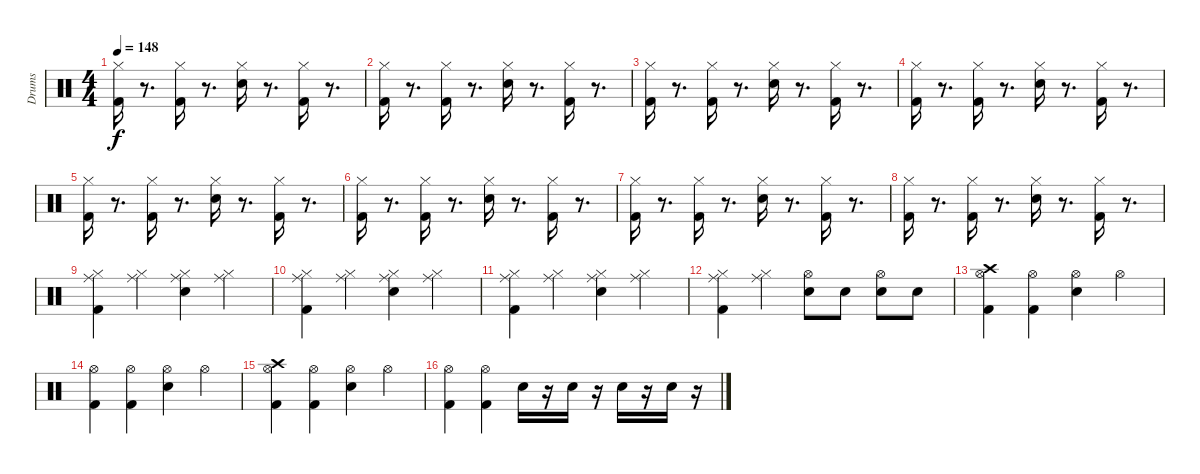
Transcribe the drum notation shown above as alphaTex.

\track ("Drums" "Drums") {instrument percussion}
\staff {score}
\articulation defaults
\ts (4 4)
\tempo 148
\clef neutral
\ks c
("Kick (hit) 2" "Hi-Hat (closed)").16{dy f} r.8{d} ("Kick (hit) 2" "Hi-Hat (closed)").16 r.8{d} ("Snare (hit) 2" "Hi-Hat (closed)").16 r.8{d} ("Kick (hit) 2" "Hi-Hat (closed)").16 r.8{d} |
("Kick (hit) 2" "Hi-Hat (closed)").16 r.8{d} ("Kick (hit) 2" "Hi-Hat (closed)").16 r.8{d} ("Snare (hit) 2" "Hi-Hat (closed)").16 r.8{d} ("Kick (hit) 2" "Hi-Hat (closed)").16 r.8{d} |
("Kick (hit) 2" "Hi-Hat (closed)").16 r.8{d} ("Kick (hit) 2" "Hi-Hat (closed)").16 r.8{d} ("Snare (hit) 2" "Hi-Hat (closed)").16 r.8{d} ("Kick (hit) 2" "Hi-Hat (closed)").16 r.8{d} |
("Kick (hit) 2" "Hi-Hat (closed)").16 r.8{d} ("Kick (hit) 2" "Hi-Hat (closed)").16 r.8{d} ("Snare (hit) 2" "Hi-Hat (closed)").16 r.8{d} ("Kick (hit) 2" "Hi-Hat (closed)").16 r.8{d} |
("Kick (hit) 2" "Hi-Hat (closed)").16 r.8{d} ("Kick (hit) 2" "Hi-Hat (closed)").16 r.8{d} ("Snare (hit) 2" "Hi-Hat (closed)").16 r.8{d} ("Kick (hit) 2" "Hi-Hat (closed)").16 r.8{d} |
("Kick (hit) 2" "Hi-Hat (closed)").16 r.8{d} ("Kick (hit) 2" "Hi-Hat (closed)").16 r.8{d} ("Snare (hit) 2" "Hi-Hat (closed)").16 r.8{d} ("Kick (hit) 2" "Hi-Hat (closed)").16 r.8{d} |
("Kick (hit) 2" "Hi-Hat (closed)").16 r.8{d} ("Kick (hit) 2" "Hi-Hat (closed)").16 r.8{d} ("Snare (hit) 2" "Hi-Hat (closed)").16 r.8{d} ("Kick (hit) 2" "Hi-Hat (closed)").16 r.8{d} |
("Kick (hit) 2" "Hi-Hat (closed)").16 r.8{d} ("Kick (hit) 2" "Hi-Hat (closed)").16 r.8{d} ("Snare (hit) 2" "Hi-Hat (closed)").16 r.8{d} ("Kick (hit) 2" "Hi-Hat (closed)").16 r.8{d} |
("Ride (middle)" "Hi-Hat (closed)" "Kick (hit) 2").4 ("Ride (middle)" "Hi-Hat (closed)").4 ("Ride (middle)" "Hi-Hat (closed)" "Snare (hit) 2").4 ("Ride (middle)" "Hi-Hat (closed)").4 |
("Ride (middle)" "Hi-Hat (closed)" "Kick (hit) 2").4 ("Ride (middle)" "Hi-Hat (closed)").4 ("Ride (middle)" "Hi-Hat (closed)" "Snare (hit) 2").4 ("Ride (middle)" "Hi-Hat (closed)").4 |
("Ride (middle)" "Hi-Hat (closed)" "Kick (hit) 2").4 ("Ride (middle)" "Hi-Hat (closed)").4 ("Ride (middle)" "Hi-Hat (closed)" "Snare (hit) 2").4 ("Ride (middle)" "Hi-Hat (closed)").4 |
("Ride (middle)" "Hi-Hat (closed)" "Kick (hit) 2").4 ("Ride (middle)" "Hi-Hat (closed)").4 ("Hi-Hat (open)" "Snare (hit) 2").8 "Snare (hit) 2".8 ("Hi-Hat (open)" "Snare (hit) 2").8 "Snare (hit) 2".8 |
("Hi-Hat (open)" "Kick (hit) 2" "Crash high (hit)").4 ("Kick (hit) 2" "Hi-Hat (open)").4 ("Hi-Hat (open)" "Snare (hit) 2").4 "Hi-Hat (open)".4 |
("Hi-Hat (open)" "Kick (hit) 2").4 ("Hi-Hat (open)" "Kick (hit) 2").4 ("Hi-Hat (open)" "Snare (hit) 2").4 "Hi-Hat (open)".4 |
("Crash high (hit)" "Hi-Hat (open)" "Kick (hit) 2").4 ("Hi-Hat (open)" "Kick (hit) 2").4 ("Hi-Hat (open)" "Snare (hit) 2").4 "Hi-Hat (open)".4 |
("Hi-Hat (open)" "Kick (hit) 2").4 ("Hi-Hat (open)" "Kick (hit) 2").4 "Snare (hit) 2".16 r.16 "Snare (hit) 2".16 r.16 "Snare (hit) 2".16 r.16 "Snare (hit) 2".16 r.16
